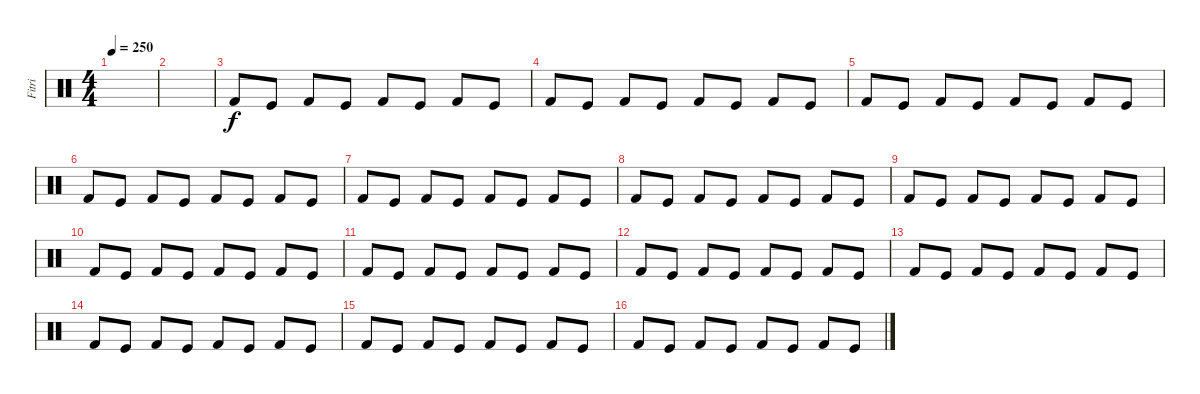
\track ("Fitri" "Fitri") {instrument percussion}
\staff {score}
\articulation defaults
\ts (4 4)
\tempo 250
\clef neutral
\ks c
|
|
"Kick (hit) 2".8 "Kick (hit)".8 "Kick (hit) 2".8 "Kick (hit)".8 "Kick (hit) 2".8 "Kick (hit)".8 "Kick (hit) 2".8 "Kick (hit)".8 |
"Kick (hit) 2".8 "Kick (hit)".8 "Kick (hit) 2".8 "Kick (hit)".8 "Kick (hit) 2".8 "Kick (hit)".8 "Kick (hit) 2".8 "Kick (hit)".8 |
"Kick (hit) 2".8 "Kick (hit)".8 "Kick (hit) 2".8 "Kick (hit)".8 "Kick (hit) 2".8 "Kick (hit)".8 "Kick (hit) 2".8 "Kick (hit)".8 |
"Kick (hit) 2".8 "Kick (hit)".8 "Kick (hit) 2".8 "Kick (hit)".8 "Kick (hit) 2".8 "Kick (hit)".8 "Kick (hit) 2".8 "Kick (hit)".8 |
"Kick (hit) 2".8 "Kick (hit)".8 "Kick (hit) 2".8 "Kick (hit)".8 "Kick (hit) 2".8 "Kick (hit)".8 "Kick (hit) 2".8 "Kick (hit)".8 |
"Kick (hit) 2".8 "Kick (hit)".8 "Kick (hit) 2".8 "Kick (hit)".8 "Kick (hit) 2".8 "Kick (hit)".8 "Kick (hit) 2".8 "Kick (hit)".8 |
"Kick (hit) 2".8 "Kick (hit)".8 "Kick (hit) 2".8 "Kick (hit)".8 "Kick (hit) 2".8 "Kick (hit)".8 "Kick (hit) 2".8 "Kick (hit)".8 |
"Kick (hit) 2".8 "Kick (hit)".8 "Kick (hit) 2".8 "Kick (hit)".8 "Kick (hit) 2".8 "Kick (hit)".8 "Kick (hit) 2".8 "Kick (hit)".8 |
"Kick (hit) 2".8 "Kick (hit)".8 "Kick (hit) 2".8 "Kick (hit)".8 "Kick (hit) 2".8 "Kick (hit)".8 "Kick (hit) 2".8 "Kick (hit)".8 |
"Kick (hit) 2".8 "Kick (hit)".8 "Kick (hit) 2".8 "Kick (hit)".8 "Kick (hit) 2".8 "Kick (hit)".8 "Kick (hit) 2".8 "Kick (hit)".8 |
"Kick (hit) 2".8 "Kick (hit)".8 "Kick (hit) 2".8 "Kick (hit)".8 "Kick (hit) 2".8 "Kick (hit)".8 "Kick (hit) 2".8 "Kick (hit)".8 |
"Kick (hit) 2".8 "Kick (hit)".8 "Kick (hit) 2".8 "Kick (hit)".8 "Kick (hit) 2".8 "Kick (hit)".8 "Kick (hit) 2".8 "Kick (hit)".8 |
"Kick (hit) 2".8 "Kick (hit)".8 "Kick (hit) 2".8 "Kick (hit)".8 "Kick (hit) 2".8 "Kick (hit)".8 "Kick (hit) 2".8 "Kick (hit)".8 |
"Kick (hit) 2".8 "Kick (hit)".8 "Kick (hit) 2".8 "Kick (hit)".8 "Kick (hit) 2".8 "Kick (hit)".8 "Kick (hit) 2".8 "Kick (hit)".8
